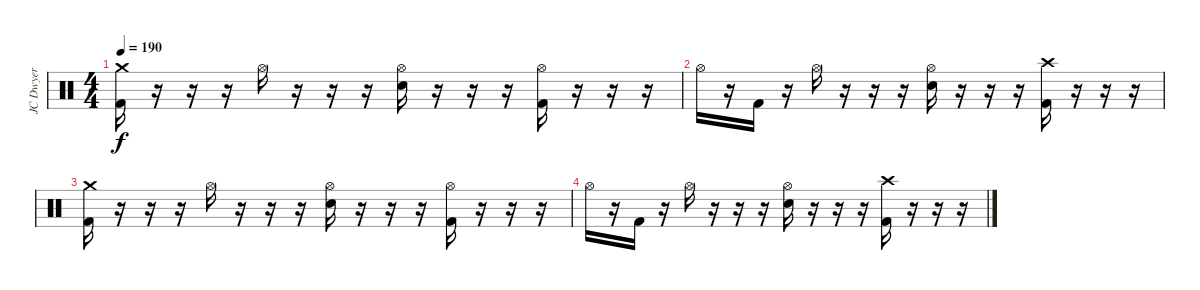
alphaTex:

\track ("JC Dwyer" "JC Dwyer") {instrument percussion}
\staff {score}
\articulation defaults
\ts (4 4)
\tempo 190
\clef neutral
\ks c
("Crash medium (hit)" "Kick (hit) 2").16{dy f} r.16 r.16 r.16 "Hi-Hat (open)".16 r.16 r.16 r.16 ("Hi-Hat (open)" "Electric Snare (hit)").16 r.16 r.16 r.16 ("Hi-Hat (open)" "Kick (hit) 2").16 r.16 r.16 r.16 |
"Hi-Hat (open)".16 r.16 "Kick (hit) 2".16 r.16 "Hi-Hat (open)".16 r.16 r.16 r.16 ("Hi-Hat (open)" "Electric Snare (hit)").16 r.16 r.16 r.16 ("Crash high (hit)" "Kick (hit) 2").16 r.16 r.16 r.16 |
("Crash medium (hit)" "Kick (hit) 2").16 r.16 r.16 r.16 "Hi-Hat (open)".16 r.16 r.16 r.16 ("Hi-Hat (open)" "Electric Snare (hit)").16 r.16 r.16 r.16 ("Hi-Hat (open)" "Kick (hit) 2").16 r.16 r.16 r.16 |
"Hi-Hat (open)".16 r.16 "Kick (hit) 2".16 r.16 "Hi-Hat (open)".16 r.16 r.16 r.16 ("Hi-Hat (open)" "Electric Snare (hit)").16 r.16 r.16 r.16 ("Crash high (hit)" "Kick (hit) 2").16 r.16 r.16 r.16
